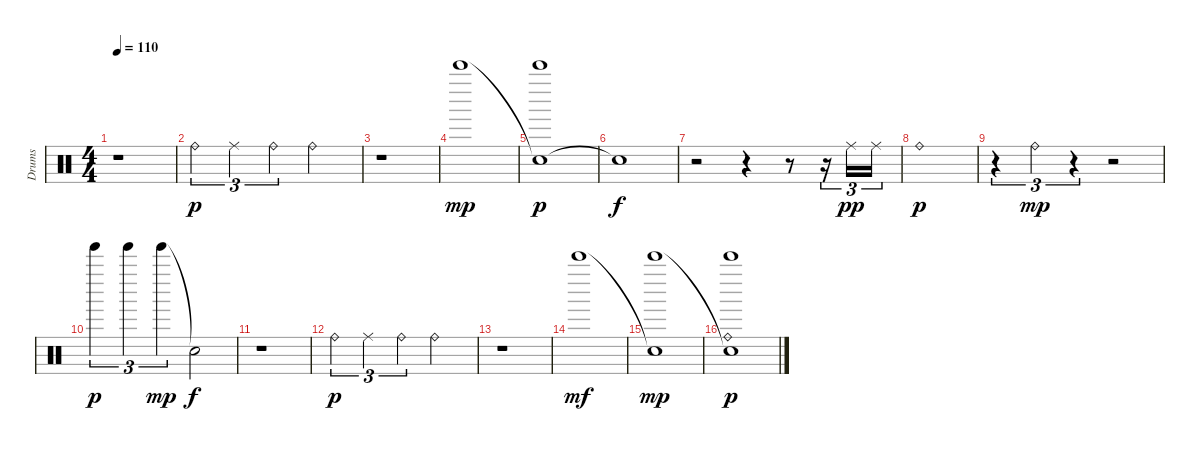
\track ("Drums" "Drums") {instrument percussion}
\staff {score}
\articulation defaults
\ts (4 4)
\tempo 110
\clef neutral
\ks c
r.1{dy f} |
"Ride (bell)".4{tu (3 2) dy p} "Ride (middle)".4{tu (3 2)} "Ride (bell)".4{tu (3 2)} "Ride (bell)".2 |
r.1 |
"Bell Tree (hit)".1{dy mp} |
("Snare (hit)"{t} "Bell Tree (hit)").1{dy p} |
"Snare (hit)"{t}.1{dy f} |
r.2 r.4 r.8 r.16{tu (3 2)} "Ride (middle)".16{tu (3 2) dy pp} "Ride (middle)".16{tu (3 2)} |
"Ride (bell)".1{dy p} |
r.4{tu (3 2)} "Ride (bell)".4{tu (3 2) dy mp} r.4{tu (3 2)} r.2 |
"Tinkle Bell (hit)".4{tu (3 2) dy p} "Tinkle Bell (hit)".4{tu (3 2)} "Tinkle Bell (hit)".4{tu (3 2) dy mp} "Snare (hit)"{t}.2{dy f} |
r.1 |
"Ride (bell)".4{tu (3 2) dy p} "Ride (middle)".4{tu (3 2)} "Ride (bell)".4{tu (3 2)} "Ride (bell)".2 |
r.1 |
"Bell Tree (hit)".1{dy mf} |
("Snare (hit)"{t} "Bell Tree (hit)").1{dy mp} |
("Ride (bell)" "Snare (hit)"{t} "Bell Tree (hit)").1{dy p}
